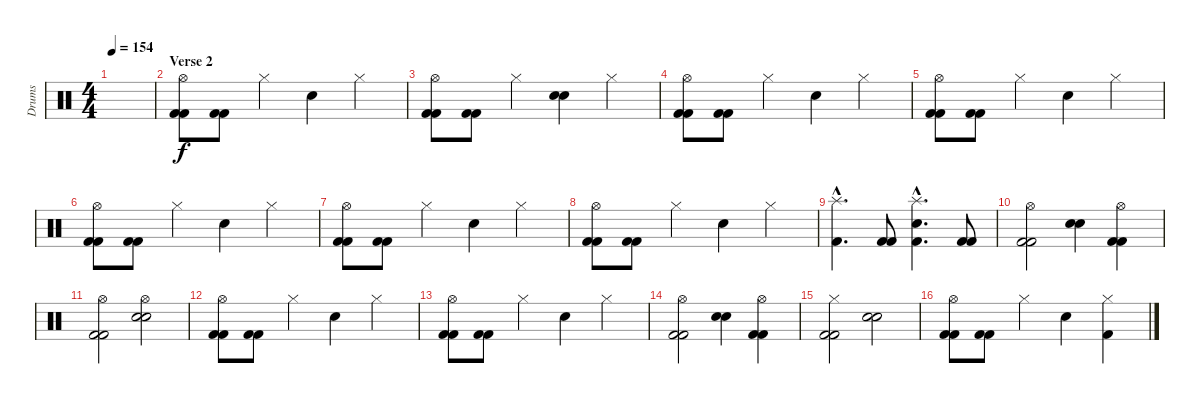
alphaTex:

\track ("Drums" "Drums") {instrument percussion}
\staff {score}
\articulation defaults
\ts (4 4)
\tempo 154
\clef neutral
\ks c
|
\section ("" "Verse 2")
("Hi-Hat (open)" "Kick (hit) 2" "Kick (hit) 2").8 ("Kick (hit) 2" "Kick (hit) 2").8 "Hi-Hat (closed)".4 "Snare (hit) 2".4 "Hi-Hat (closed)".4 |
("Hi-Hat (open)" "Kick (hit) 2" "Kick (hit) 2").8 ("Kick (hit) 2" "Kick (hit) 2").8 "Hi-Hat (closed)".4 ("Snare (hit) 2" "Snare (hit) 2").4 "Hi-Hat (closed)".4 |
("Hi-Hat (open)" "Kick (hit) 2" "Kick (hit) 2").8 ("Kick (hit) 2" "Kick (hit) 2").8 "Hi-Hat (closed)".4 "Snare (hit) 2".4 "Hi-Hat (closed)".4 |
("Hi-Hat (open)" "Kick (hit) 2" "Kick (hit) 2").8 ("Kick (hit) 2" "Kick (hit) 2").8 "Hi-Hat (closed)".4 "Snare (hit) 2".4 "Hi-Hat (closed)".4 |
("Hi-Hat (open)" "Kick (hit) 2" "Kick (hit) 2").8 ("Kick (hit) 2" "Kick (hit) 2").8 "Hi-Hat (closed)".4 "Snare (hit) 2".4 "Hi-Hat (closed)".4 |
("Hi-Hat (open)" "Kick (hit) 2" "Kick (hit) 2").8 ("Kick (hit) 2" "Kick (hit) 2").8 "Hi-Hat (closed)".4 "Snare (hit) 2".4 "Hi-Hat (closed)".4 |
("Hi-Hat (open)" "Kick (hit) 2" "Kick (hit) 2").8 ("Kick (hit) 2" "Kick (hit) 2").8 "Hi-Hat (closed)".4 "Snare (hit) 2".4 "Hi-Hat (closed)".4 |
("Splash (hit)"{hac} "Kick (hit) 2"{hac}).4{d} ("Kick (hit) 2" "Kick (hit) 2").8 ("Splash (hit)"{hac} "Snare (hit) 2"{hac} "Kick (hit) 2"{hac}).4{d} ("Kick (hit) 2" "Kick (hit) 2").8 |
("Hi-Hat (open)" "Kick (hit) 2" "Kick (hit) 2").2 ("Snare (hit) 2" "Snare (hit) 2").4 ("Hi-Hat (open)" "Kick (hit) 2" "Kick (hit) 2").4 |
("Hi-Hat (open)" "Kick (hit) 2" "Kick (hit) 2").2 ("Hi-Hat (open)" "Snare (hit) 2" "Snare (hit) 2").2 |
("Hi-Hat (open)" "Kick (hit) 2" "Kick (hit) 2").8 ("Kick (hit) 2" "Kick (hit) 2").8 "Hi-Hat (closed)".4 "Snare (hit) 2".4 "Hi-Hat (closed)".4 |
("Hi-Hat (open)" "Kick (hit) 2" "Kick (hit) 2").8 ("Kick (hit) 2" "Kick (hit) 2").8 "Hi-Hat (closed)".4 "Snare (hit) 2".4 "Hi-Hat (closed)".4 |
("Hi-Hat (open)" "Kick (hit) 2" "Kick (hit) 2").2 ("Snare (hit) 2" "Snare (hit) 2").4 ("Hi-Hat (open)" "Kick (hit) 2" "Kick (hit) 2").4 |
("Hi-Hat (closed)" "Kick (hit) 2" "Kick (hit) 2").2 ("Snare (hit) 2" "Snare (hit) 2").2 |
("Hi-Hat (open)" "Kick (hit) 2" "Kick (hit) 2").8 ("Kick (hit) 2" "Kick (hit) 2").8 "Hi-Hat (closed)".4 "Snare (hit) 2".4 ("Hi-Hat (closed)" "Kick (hit) 2").4
